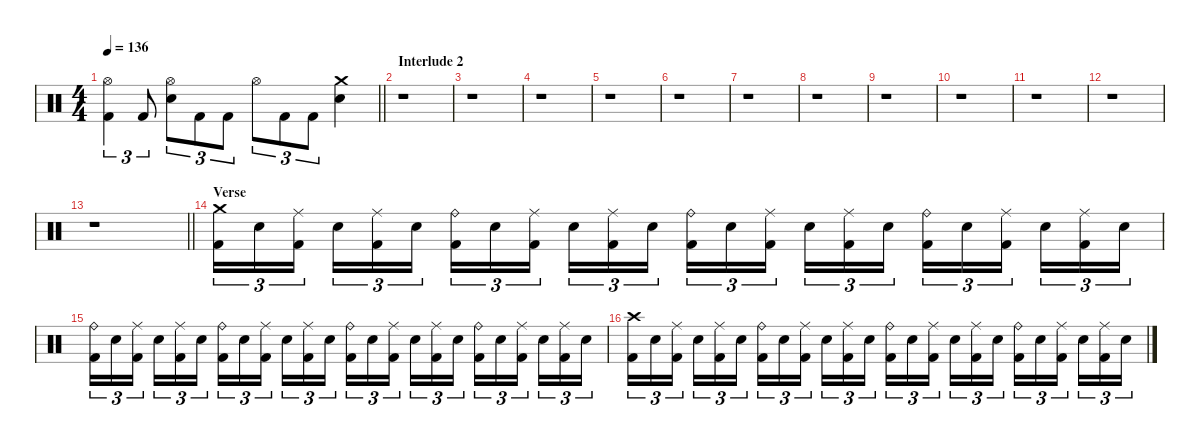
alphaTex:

\defaultSystemsLayout 4
\hideDynamics
\bracketExtendMode nobrackets
\singleTrackTrackNamePolicy hidden
\multiTrackTrackNamePolicy hidden
\firstSystemTrackNameMode fullname
\firstSystemTrackNameOrientation horizontal
\otherSystemsTrackNameOrientation horizontal
\track ("Drums" "drm.") {instrument percussion}
\staff {score}
\articulation defaults
\ts (4 4)
\tempo 136
\clef neutral
\barLineRight lightlight
\ks c
("Hi-Hat (open)" "Kick (hit) 2").4{tu (3 2) dy f beam Down} "Kick (hit) 2".8{tu (3 2) beam Up} ("Hi-Hat (open)" "Snare (hit) 2").8{tu (3 2) beam Down} "Kick (hit) 2".8{tu (3 2) beam Down} "Kick (hit) 2".8{tu (3 2) beam Down} "Hi-Hat (open)".8{tu (3 2) beam Down} "Kick (hit) 2".8{tu (3 2) beam Down} "Kick (hit) 2".8{tu (3 2) beam Down} ("Crash medium (hit)" "Snare (hit) 2").4{beam Down} |
\section ("" "Interlude 2")
r.1{beam Down} |
r.1{beam Down} |
r.1{beam Down} |
r.1{beam Down} |
r.1{beam Down} |
r.1{beam Down} |
r.1{beam Down} |
r.1{beam Down} |
r.1{beam Down} |
r.1{beam Down} |
r.1{beam Down} |
\barLineRight lightlight
r.1{beam Down} |
\section ("" "Verse")
("Crash medium (hit)" "Kick (hit) 2").16{tu (3 2) beam Down} "Snare (hit) 2".16{tu (3 2) beam Down} ("Ride (middle)" "Kick (hit) 2").16{tu (3 2) beam Down} "Snare (hit) 2".16{tu (3 2) beam Down} ("Ride (middle)" "Kick (hit) 2").16{tu (3 2) beam Down} "Snare (hit) 2".16{tu (3 2) beam Down} ("Ride (bell)" "Kick (hit) 2").16{tu (3 2) beam Down} "Snare (hit) 2".16{tu (3 2) beam Down} ("Ride (middle)" "Kick (hit) 2").16{tu (3 2) beam Down} "Snare (hit) 2".16{tu (3 2) beam Down} ("Ride (middle)" "Kick (hit) 2").16{tu (3 2) beam Down} "Snare (hit) 2".16{tu (3 2) beam Down} ("Ride (bell)" "Kick (hit) 2").16{tu (3 2) beam Down} "Snare (hit) 2".16{tu (3 2) beam Down} ("Ride (middle)" "Kick (hit) 2").16{tu (3 2) beam Down} "Snare (hit) 2".16{tu (3 2) beam Down} ("Ride (middle)" "Kick (hit) 2").16{tu (3 2) beam Down} "Snare (hit) 2".16{tu (3 2) beam Down} ("Ride (bell)" "Kick (hit) 2").16{tu (3 2) beam Down} "Snare (hit) 2".16{tu (3 2) beam Down} ("Ride (middle)" "Kick (hit) 2").16{tu (3 2) beam Down} "Snare (hit) 2".16{tu (3 2) beam Down} ("Ride (middle)" "Kick (hit) 2").16{tu (3 2) beam Down} "Snare (hit) 2".16{tu (3 2) beam Down} |
("Ride (bell)" "Kick (hit) 2").16{tu (3 2) beam Down} "Snare (hit) 2".16{tu (3 2) beam Down} ("Ride (middle)" "Kick (hit) 2").16{tu (3 2) beam Down} "Snare (hit) 2".16{tu (3 2) beam Down} ("Ride (middle)" "Kick (hit) 2").16{tu (3 2) beam Down} "Snare (hit) 2".16{tu (3 2) beam Down} ("Ride (bell)" "Kick (hit) 2").16{tu (3 2) beam Down} "Snare (hit) 2".16{tu (3 2) beam Down} ("Ride (middle)" "Kick (hit) 2").16{tu (3 2) beam Down} "Snare (hit) 2".16{tu (3 2) beam Down} ("Ride (middle)" "Kick (hit) 2").16{tu (3 2) beam Down} "Snare (hit) 2".16{tu (3 2) beam Down} ("Ride (bell)" "Kick (hit) 2").16{tu (3 2) beam Down} "Snare (hit) 2".16{tu (3 2) beam Down} ("Ride (middle)" "Kick (hit) 2").16{tu (3 2) beam Down} "Snare (hit) 2".16{tu (3 2) beam Down} ("Ride (middle)" "Kick (hit) 2").16{tu (3 2) beam Down} "Snare (hit) 2".16{tu (3 2) beam Down} ("Ride (bell)" "Kick (hit) 2").16{tu (3 2) beam Down} "Snare (hit) 2".16{tu (3 2) beam Down} ("Ride (middle)" "Kick (hit) 2").16{tu (3 2) beam Down} "Snare (hit) 2".16{tu (3 2) beam Down} ("Ride (middle)" "Kick (hit) 2").16{tu (3 2) beam Down} "Snare (hit) 2".16{tu (3 2) beam Down} |
("Crash high (hit)" "Kick (hit) 2").16{tu (3 2) beam Down} "Snare (hit) 2".16{tu (3 2) beam Down} ("Ride (middle)" "Kick (hit) 2").16{tu (3 2) beam Down} "Snare (hit) 2".16{tu (3 2) beam Down} ("Ride (middle)" "Kick (hit) 2").16{tu (3 2) beam Down} "Snare (hit) 2".16{tu (3 2) beam Down} ("Ride (bell)" "Kick (hit) 2").16{tu (3 2) beam Down} "Snare (hit) 2".16{tu (3 2) beam Down} ("Ride (middle)" "Kick (hit) 2").16{tu (3 2) beam Down} "Snare (hit) 2".16{tu (3 2) beam Down} ("Ride (middle)" "Kick (hit) 2").16{tu (3 2) beam Down} "Snare (hit) 2".16{tu (3 2) beam Down} ("Ride (bell)" "Kick (hit) 2").16{tu (3 2) beam Down} "Snare (hit) 2".16{tu (3 2) beam Down} ("Ride (middle)" "Kick (hit) 2").16{tu (3 2) beam Down} "Snare (hit) 2".16{tu (3 2) beam Down} ("Ride (middle)" "Kick (hit) 2").16{tu (3 2) beam Down} "Snare (hit) 2".16{tu (3 2) beam Down} ("Ride (bell)" "Kick (hit) 2").16{tu (3 2) beam Down} "Snare (hit) 2".16{tu (3 2) beam Down} ("Ride (middle)" "Kick (hit) 2").16{tu (3 2) beam Down} "Snare (hit) 2".16{tu (3 2) beam Down} ("Ride (middle)" "Kick (hit) 2").16{tu (3 2) beam Down} "Snare (hit) 2".16{tu (3 2) beam Down}
